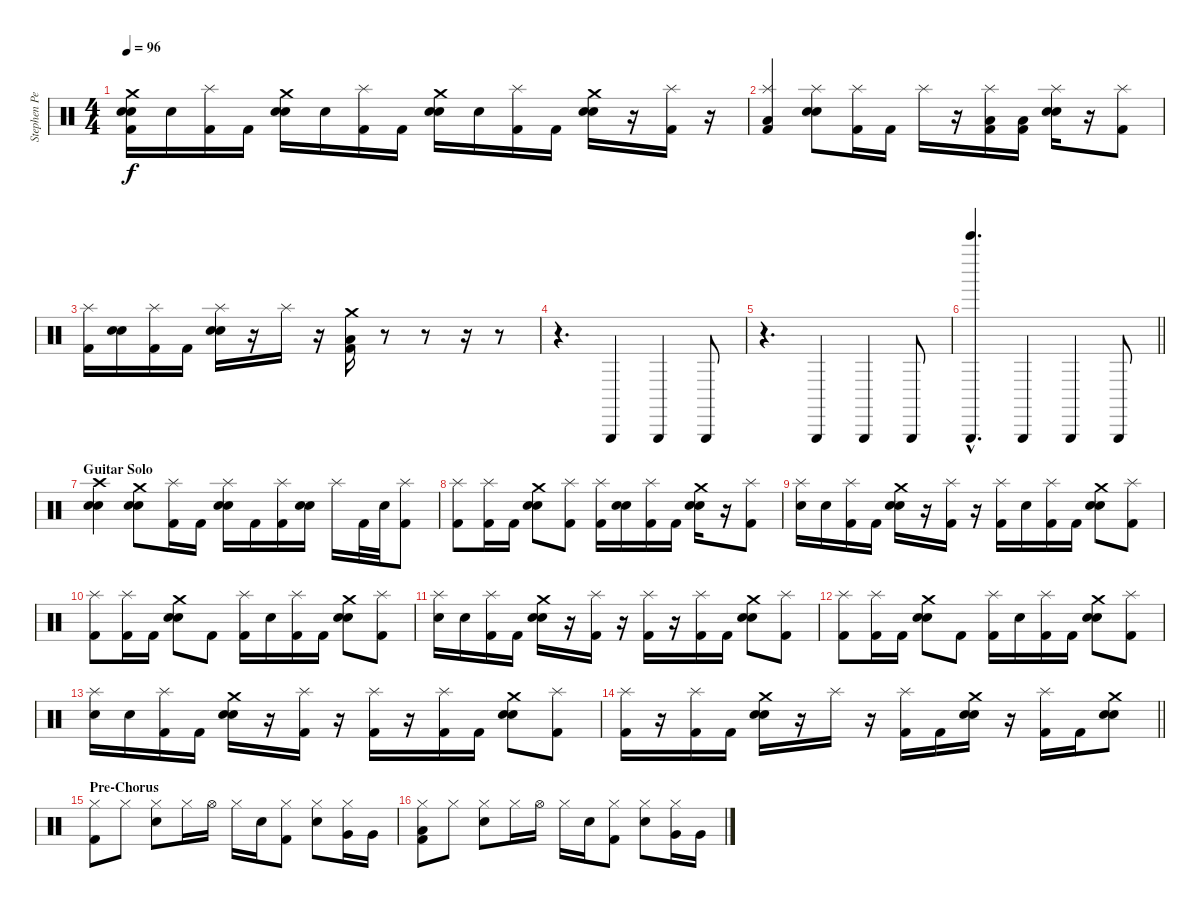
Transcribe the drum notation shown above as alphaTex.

\track ("Stephen Perkins Drums" "Stephen Pe") {instrument percussion}
\staff {score}
\articulation defaults
\ts (4 4)
\tempo 96
\clef neutral
\ks c
("Crash medium (hit)" "Electric Snare (hit)" "Snare (hit) 2" "Kick (hit) 2").16{dy f} "Electric Snare (hit)".16 ("Splash (hit)" "Kick (hit) 2").16 "Kick (hit) 2".16 ("Crash medium (hit)" "Electric Snare (hit)" "Snare (hit) 2").16 "Electric Snare (hit)".16 ("Splash (hit)" "Kick (hit) 2").16 "Kick (hit) 2".16 ("Crash medium (hit)" "Electric Snare (hit)" "Snare (hit) 2").16 "Electric Snare (hit)".16 ("Splash (hit)" "Kick (hit) 2").16 "Kick (hit) 2".16 ("Crash medium (hit)" "Snare (hit) 2" "Electric Snare (hit)").16 r.16 ("Splash (hit)" "Kick (hit) 2").16 r.16 |
("Splash (hit)" "Low Floor Tom (hit)" "Kick (hit) 2").4 ("Splash (hit)" "Electric Snare (hit)" "Snare (hit) 2").8 ("Splash (hit)" "Kick (hit) 2").16 "Kick (hit) 2".16 "Splash (hit)".16 r.16 ("Splash (hit)" "Low Floor Tom (hit)" "Kick (hit) 2").16 ("Low Floor Tom (hit)" "Kick (hit) 2").16 ("Splash (hit)" "Snare (hit) 2" "Electric Snare (hit)").16 r.16 ("Splash (hit)" "Kick (hit) 2").8 |
("Splash (hit)" "Kick (hit) 2").16 ("Electric Snare (hit)" "Snare (hit) 2").16 ("Splash (hit)" "Kick (hit) 2").16 "Kick (hit) 2".16 ("Splash (hit)" "Electric Snare (hit)" "Snare (hit) 2").16 r.16 "Splash (hit)".16 r.16 ("Crash medium (hit)" "Low Floor Tom (hit)" "Kick (hit) 2").16 r.8 r.8 r.16 r.8 |
r.4{d} "Triangle (hit)".4 "Triangle (hit)".4 "Triangle (hit)".8 |
r.4{d} "Triangle (hit)".4 "Triangle (hit)".4 "Triangle (hit)".8 |
\barLineRight lightlight
("Bell Tree (hit)"{hac} "Triangle (hit)"{hac}).4{d} "Triangle (hit)".4 "Triangle (hit)".4 "Triangle (hit)".8 |
\section ("" "Guitar Solo")
("Crash high (hit)" "Electric Snare (hit)" "Snare (hit) 2").4 ("Crash medium (hit)" "Electric Snare (hit)" "Snare (hit) 2").8 ("Splash (hit)" "Kick (hit) 2").16 "Kick (hit) 2".16 ("Splash (hit)" "Snare (hit) 2" "Electric Snare (hit)").16 "Kick (hit) 2".16 ("Splash (hit)" "Kick (hit) 2").16 ("Snare (hit) 2" "Electric Snare (hit)").16 "Splash (hit)".16 "Kick (hit) 2".32 "Electric Snare (hit)".32 ("Splash (hit)" "Kick (hit) 2").8 |
("Splash (hit)" "Kick (hit) 2").8 ("Splash (hit)" "Kick (hit) 2").16 "Kick (hit) 2".16 ("Crash medium (hit)" "Snare (hit) 2" "Electric Snare (hit)").8 ("Splash (hit)" "Kick (hit) 2").8 ("Splash (hit)" "Kick (hit) 2").16 ("Snare (hit) 2" "Electric Snare (hit)").16 ("Splash (hit)" "Kick (hit) 2").16 "Kick (hit) 2".16 ("Crash medium (hit)" "Snare (hit) 2" "Electric Snare (hit)").16 r.16 ("Splash (hit)" "Kick (hit) 2").8 |
("Splash (hit)" "Electric Snare (hit)").16 "Electric Snare (hit)".16 ("Splash (hit)" "Kick (hit) 2").16 "Kick (hit) 2".16 ("Crash medium (hit)" "Snare (hit) 2" "Electric Snare (hit)").16 r.16 ("Splash (hit)" "Kick (hit) 2").16 r.16 ("Splash (hit)" "Kick (hit) 2").16 "Electric Snare (hit)".16 ("Splash (hit)" "Kick (hit) 2").16 "Kick (hit) 2".16 ("Crash medium (hit)" "Snare (hit) 2" "Electric Snare (hit)").8 ("Splash (hit)" "Kick (hit) 2").8 |
("Splash (hit)" "Kick (hit) 2").8 ("Splash (hit)" "Kick (hit) 2").16 "Kick (hit) 2".16 ("Crash medium (hit)" "Snare (hit) 2" "Electric Snare (hit)").8 "Kick (hit) 2".8 ("Splash (hit)" "Kick (hit) 2").16 "Electric Snare (hit)".16 ("Splash (hit)" "Kick (hit) 2").16 "Kick (hit) 2".16 ("Crash medium (hit)" "Snare (hit) 2" "Electric Snare (hit)").8 ("Splash (hit)" "Kick (hit) 2").8 |
("Splash (hit)" "Electric Snare (hit)").16 "Electric Snare (hit)".16 ("Splash (hit)" "Kick (hit) 2").16 "Kick (hit) 2".16 ("Crash medium (hit)" "Snare (hit) 2" "Electric Snare (hit)").16 r.16 ("Splash (hit)" "Kick (hit) 2").16 r.16 ("Splash (hit)" "Kick (hit) 2").16 r.16 ("Splash (hit)" "Kick (hit) 2").16 "Kick (hit) 2".16 ("Crash medium (hit)" "Snare (hit) 2" "Electric Snare (hit)").8 ("Splash (hit)" "Kick (hit) 2").8 |
("Splash (hit)" "Kick (hit) 2").8 ("Splash (hit)" "Kick (hit) 2").16 "Kick (hit) 2".16 ("Crash medium (hit)" "Snare (hit) 2" "Electric Snare (hit)").8 "Kick (hit) 2".8 ("Splash (hit)" "Kick (hit) 2").16 "Electric Snare (hit)".16 ("Splash (hit)" "Kick (hit) 2").16 "Kick (hit) 2".16 ("Crash medium (hit)" "Snare (hit) 2" "Electric Snare (hit)").8 ("Splash (hit)" "Kick (hit) 2").8 |
("Splash (hit)" "Electric Snare (hit)").16 "Electric Snare (hit)".16 ("Splash (hit)" "Kick (hit) 2").16 "Kick (hit) 2".16 ("Crash medium (hit)" "Snare (hit) 2" "Electric Snare (hit)").16 r.16 ("Splash (hit)" "Kick (hit) 2").16 r.16 ("Splash (hit)" "Kick (hit) 2").16 r.16 ("Splash (hit)" "Kick (hit) 2").16 "Kick (hit) 2".16 ("Crash medium (hit)" "Snare (hit) 2" "Electric Snare (hit)").8 ("Splash (hit)" "Kick (hit) 2").8 |
\barLineRight lightlight
("Splash (hit)" "Kick (hit) 2").16 r.16 ("Splash (hit)" "Kick (hit) 2").16 "Kick (hit) 2".16 ("Crash medium (hit)" "Snare (hit) 2" "Electric Snare (hit)").16 r.16 "Splash (hit)".16 r.16 ("Splash (hit)" "Kick (hit) 2").16 "Kick (hit) 2".16 ("Crash medium (hit)" "Snare (hit) 2" "Electric Snare (hit)").16 r.16 ("Splash (hit)" "Kick (hit) 2").16 "Kick (hit) 2".16 ("Crash medium (hit)" "Snare (hit) 2" "Electric Snare (hit)").8 |
\section ("" "Pre-Chorus")
("Hi-Hat (closed)" "Kick (hit) 2").8 "Hi-Hat (closed)".8 ("Hi-Hat (closed)" "Electric Snare (hit)").8 "Hi-Hat (closed)".16 "Hi-Hat (open)".16 "Hi-Hat (closed)".16 "Electric Snare (hit)".16 ("Hi-Hat (closed)" "Kick (hit) 2").8 ("Hi-Hat (closed)" "Electric Snare (hit)").8 ("Hi-Hat (closed)" "Very Low Tom (hit)").16 "Very Low Tom (hit)".16 |
("Hi-Hat (closed)" "Low Floor Tom (hit)" "Kick (hit) 2").8 "Hi-Hat (closed)".8 ("Hi-Hat (closed)" "Electric Snare (hit)").8 "Hi-Hat (closed)".16 "Hi-Hat (open)".16 "Hi-Hat (closed)".16 "Electric Snare (hit)".16 ("Hi-Hat (closed)" "Kick (hit) 2").8 ("Hi-Hat (closed)" "Electric Snare (hit)").8 ("Hi-Hat (closed)" "Very Low Tom (hit)").16 "Very Low Tom (hit)".16
